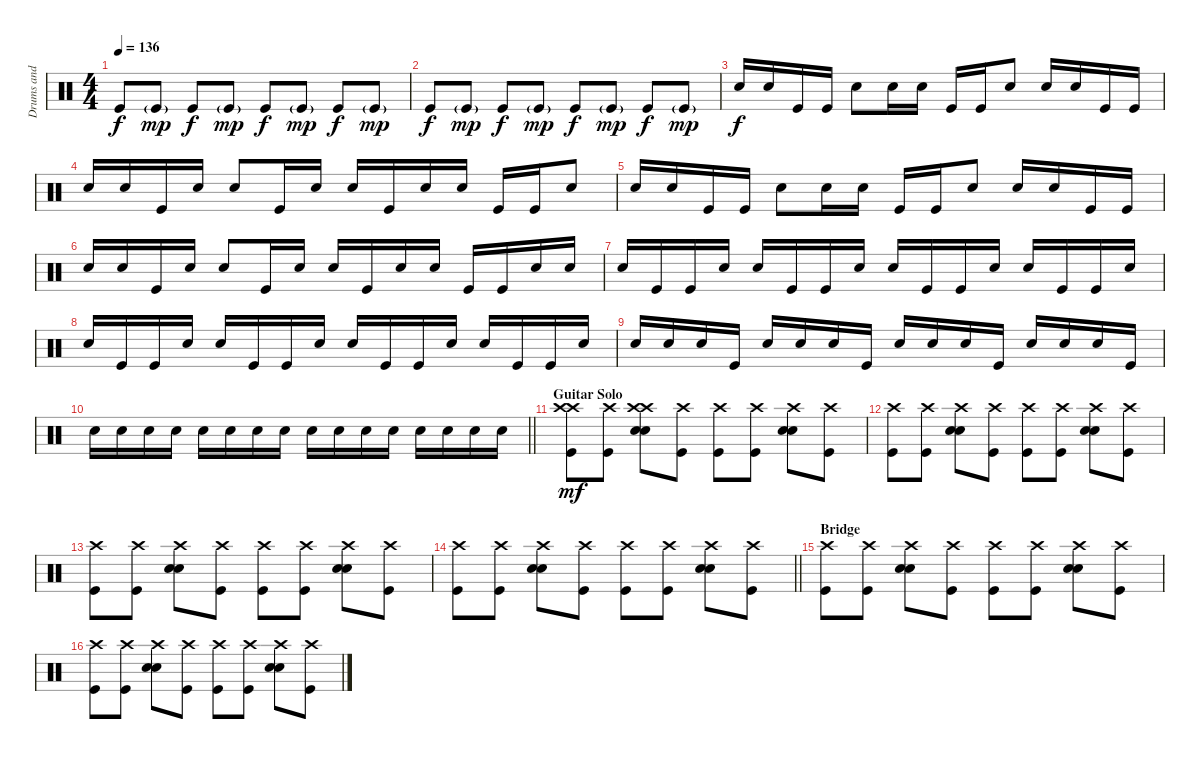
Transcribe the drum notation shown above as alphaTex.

\track ("Drums and Percussions" "Drums and ") {instrument percussion}
\staff {score}
\articulation defaults
\ts (4 4)
\tempo 136
\clef neutral
\ks c "Kick (hit)".8{dy f} "Kick (hit)"{g}.8{dy mp} "Kick (hit)".8{dy f} "Kick (hit)"{g}.8{dy mp} "Kick (hit)".8{dy f} "Kick (hit)"{g}.8{dy mp} "Kick (hit)".8{dy f} "Kick (hit)"{g}.8{dy mp}
|
"Kick (hit)".8{dy f} "Kick (hit)"{g}.8{dy mp} "Kick (hit)".8{dy f} "Kick (hit)"{g}.8{dy mp} "Kick (hit)".8{dy f} "Kick (hit)"{g}.8{dy mp} "Kick (hit)".8{dy f} "Kick (hit)"{g}.8{dy mp} |
"Electric Snare (hit)".16{dy f} "Electric Snare (hit)".16 "Kick (hit)".16 "Kick (hit)".16 "Electric Snare (hit)".8 "Electric Snare (hit)".16 "Electric Snare (hit)".16 "Kick (hit)".16 "Kick (hit)".16 "Electric Snare (hit)".8 "Electric Snare (hit)".16 "Electric Snare (hit)".16 "Kick (hit)".16 "Kick (hit)".16 |
"Electric Snare (hit)".16 "Electric Snare (hit)".16 "Kick (hit)".16 "Electric Snare (hit)".16 "Electric Snare (hit)".8 "Kick (hit)".16 "Electric Snare (hit)".16 "Electric Snare (hit)".16 "Kick (hit)".16 "Electric Snare (hit)".16 "Electric Snare (hit)".16 "Kick (hit)".16 "Kick (hit)".16 "Electric Snare (hit)".8 |
"Electric Snare (hit)".16 "Electric Snare (hit)".16 "Kick (hit)".16 "Kick (hit)".16 "Electric Snare (hit)".8 "Electric Snare (hit)".16 "Electric Snare (hit)".16 "Kick (hit)".16 "Kick (hit)".16 "Electric Snare (hit)".8 "Electric Snare (hit)".16 "Electric Snare (hit)".16 "Kick (hit)".16 "Kick (hit)".16 |
"Electric Snare (hit)".16 "Electric Snare (hit)".16 "Kick (hit)".16 "Electric Snare (hit)".16 "Electric Snare (hit)".8 "Kick (hit)".16 "Electric Snare (hit)".16 "Electric Snare (hit)".16 "Kick (hit)".16 "Electric Snare (hit)".16 "Electric Snare (hit)".16 "Kick (hit)".16 "Kick (hit)".16 "Electric Snare (hit)".16 "Electric Snare (hit)".16 |
"Electric Snare (hit)".16 "Kick (hit)".16 "Kick (hit)".16 "Electric Snare (hit)".16 "Electric Snare (hit)".16 "Kick (hit)".16 "Kick (hit)".16 "Electric Snare (hit)".16 "Electric Snare (hit)".16 "Kick (hit)".16 "Kick (hit)".16 "Electric Snare (hit)".16 "Electric Snare (hit)".16 "Kick (hit)".16 "Kick (hit)".16 "Electric Snare (hit)".16 |
"Electric Snare (hit)".16 "Kick (hit)".16 "Kick (hit)".16 "Electric Snare (hit)".16 "Electric Snare (hit)".16 "Kick (hit)".16 "Kick (hit)".16 "Electric Snare (hit)".16 "Electric Snare (hit)".16 "Kick (hit)".16 "Kick (hit)".16 "Electric Snare (hit)".16 "Electric Snare (hit)".16 "Kick (hit)".16 "Kick (hit)".16 "Electric Snare (hit)".16 |
"Electric Snare (hit)".16 "Electric Snare (hit)".16 "Electric Snare (hit)".16 "Kick (hit)".16 "Electric Snare (hit)".16 "Electric Snare (hit)".16 "Electric Snare (hit)".16 "Kick (hit)".16 "Electric Snare (hit)".16 "Electric Snare (hit)".16 "Electric Snare (hit)".16 "Kick (hit)".16 "Electric Snare (hit)".16 "Electric Snare (hit)".16 "Electric Snare (hit)".16 "Kick (hit)".16 |
\barLineRight lightlight "Electric Snare (hit)".16 "Electric Snare (hit)".16 "Electric Snare (hit)".16 "Electric Snare (hit)".16 "Electric Snare (hit)".16 "Electric Snare (hit)".16 "Electric Snare (hit)".16 "Electric Snare (hit)".16 "Electric Snare (hit)".16 "Electric Snare (hit)".16 "Electric Snare (hit)".16 "Electric Snare (hit)".16 "Electric Snare (hit)".16 "Electric Snare (hit)".16 "Electric Snare (hit)".16 "Electric Snare (hit)".16
|
\section ("" "Guitar Solo")
("Crash high (hit)" "Crash high (hit)" "Kick (hit)").8{dy mf} ("Crash high (hit)" "Kick (hit)").8 ("Crash high (hit)" "Crash high (hit)" "Electric Snare (hit)" "Electric Snare (hit)").8 ("Crash high (hit)" "Kick (hit)").8 ("Crash high (hit)" "Kick (hit)").8 ("Crash high (hit)" "Kick (hit)").8 ("Crash high (hit)" "Electric Snare (hit)" "Electric Snare (hit)").8 ("Crash high (hit)" "Kick (hit)").8 |
("Crash high (hit)" "Kick (hit)").8 ("Crash high (hit)" "Kick (hit)").8 ("Crash high (hit)" "Electric Snare (hit)" "Electric Snare (hit)").8 ("Crash high (hit)" "Kick (hit)").8 ("Crash high (hit)" "Kick (hit)").8 ("Crash high (hit)" "Kick (hit)").8 ("Crash high (hit)" "Electric Snare (hit)" "Electric Snare (hit)").8 ("Crash high (hit)" "Kick (hit)").8 |
("Crash high (hit)" "Kick (hit)").8 ("Crash high (hit)" "Kick (hit)").8 ("Crash high (hit)" "Electric Snare (hit)" "Electric Snare (hit)").8 ("Crash high (hit)" "Kick (hit)").8 ("Crash high (hit)" "Kick (hit)").8 ("Crash high (hit)" "Kick (hit)").8 ("Crash high (hit)" "Electric Snare (hit)" "Electric Snare (hit)").8 ("Crash high (hit)" "Kick (hit)").8 |
\barLineRight lightlight
("Crash high (hit)" "Kick (hit)").8 ("Crash high (hit)" "Kick (hit)").8 ("Crash high (hit)" "Electric Snare (hit)" "Electric Snare (hit)").8 ("Crash high (hit)" "Kick (hit)").8 ("Crash high (hit)" "Kick (hit)").8 ("Crash high (hit)" "Kick (hit)").8 ("Crash high (hit)" "Electric Snare (hit)" "Electric Snare (hit)").8 ("Crash high (hit)" "Kick (hit)").8 |
\section ("" "Bridge")
("Crash high (hit)" "Kick (hit)").8 ("Crash high (hit)" "Kick (hit)").8 ("Crash high (hit)" "Electric Snare (hit)" "Electric Snare (hit)").8 ("Crash high (hit)" "Kick (hit)").8 ("Crash high (hit)" "Kick (hit)").8 ("Crash high (hit)" "Kick (hit)").8 ("Crash high (hit)" "Electric Snare (hit)" "Electric Snare (hit)").8 ("Crash high (hit)" "Kick (hit)").8 |
("Crash high (hit)" "Kick (hit)").8 ("Crash high (hit)" "Kick (hit)").8 ("Crash high (hit)" "Electric Snare (hit)" "Electric Snare (hit)").8 ("Crash high (hit)" "Kick (hit)").8 ("Crash high (hit)" "Kick (hit)").8 ("Crash high (hit)" "Kick (hit)").8 ("Crash high (hit)" "Electric Snare (hit)" "Electric Snare (hit)").8 ("Crash high (hit)" "Kick (hit)").8
